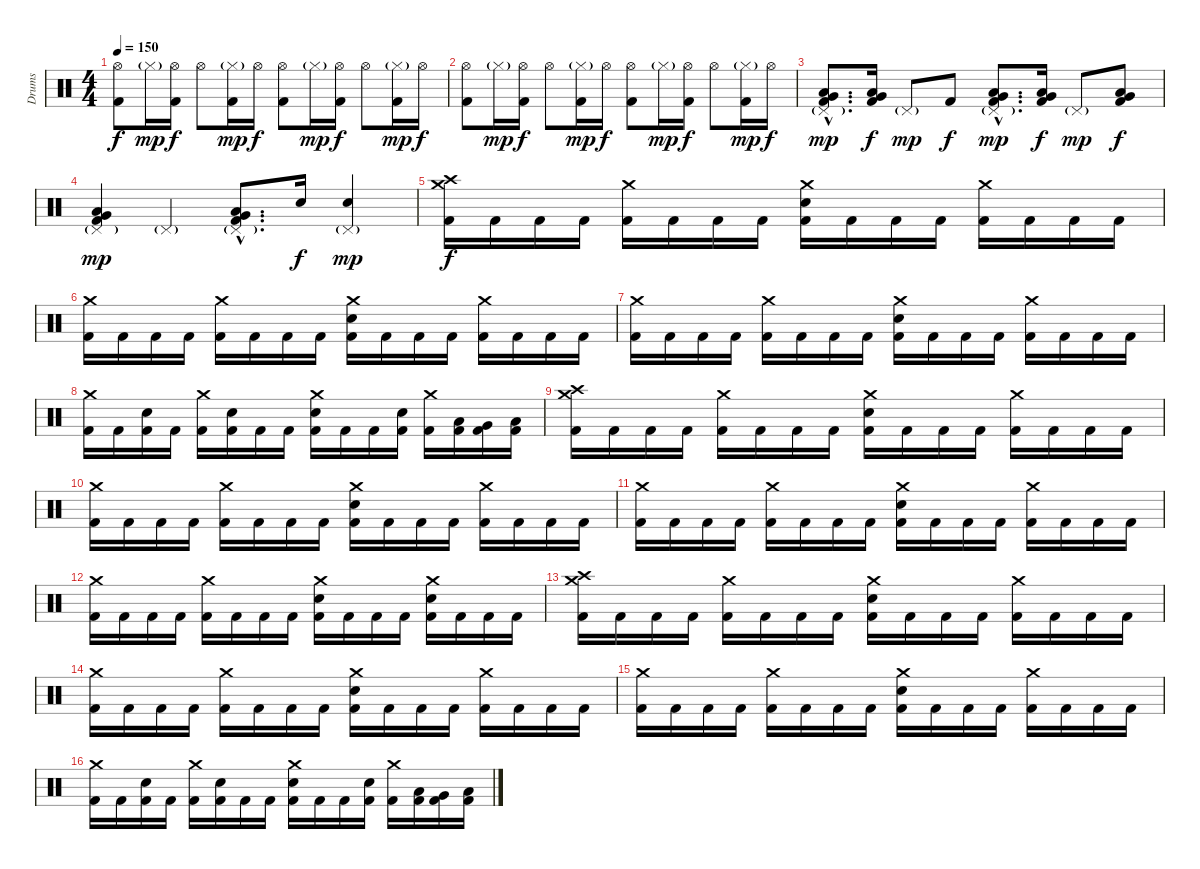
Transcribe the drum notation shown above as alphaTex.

\track ("Drums" "Drums") {instrument percussion}
\staff {score}
\articulation defaults
\ts (4 4)
\tempo 150
\clef neutral
\ks c
("Hi-Hat (open)" "Kick (hit) 2").8{dy f} "Hi-Hat (closed)"{g}.16{dy mp} ("Hi-Hat (open)" "Kick (hit) 2").16{dy f} "Hi-Hat (open)".8 ("Hi-Hat (closed)"{g} "Kick (hit) 2").16{dy mp} "Hi-Hat (open)".16{dy f} ("Hi-Hat (open)" "Kick (hit) 2").8 "Hi-Hat (closed)"{g}.16{dy mp} ("Hi-Hat (open)" "Kick (hit) 2").16{dy f} "Hi-Hat (open)".8 ("Hi-Hat (closed)"{g} "Kick (hit) 2").16{dy mp} "Hi-Hat (open)".16{dy f} |
("Hi-Hat (open)" "Kick (hit) 2").8 "Hi-Hat (closed)"{g}.16{dy mp} ("Hi-Hat (open)" "Kick (hit) 2").16{dy f} "Hi-Hat (open)".8 ("Hi-Hat (closed)"{g} "Kick (hit) 2").16{dy mp} "Hi-Hat (open)".16{dy f} ("Hi-Hat (open)" "Kick (hit) 2").8 "Hi-Hat (closed)"{g}.16{dy mp} ("Hi-Hat (open)" "Kick (hit) 2").16{dy f} "Hi-Hat (open)".8 ("Hi-Hat (closed)"{g} "Kick (hit) 2").16{dy mp} "Hi-Hat (open)".16{dy f} |
("Pedal Hi-Hat (hit)"{g hac} "Very Low Tom (hit)"{hac} "Low Tom (hit)"{hac} "Kick (hit) 2"{hac}).8{d dy mp} ("Very Low Tom (hit)" "Low Tom (hit)" "Kick (hit) 2").16{dy f} "Pedal Hi-Hat (hit)"{g}.8{dy mp} "Kick (hit) 2".8{dy f} ("Pedal Hi-Hat (hit)"{g hac} "Very Low Tom (hit)"{hac} "Low Tom (hit)"{hac} "Kick (hit) 2"{hac}).8{d dy mp} ("Very Low Tom (hit)" "Low Tom (hit)" "Kick (hit) 2").16{dy f} "Pedal Hi-Hat (hit)"{g}.8{dy mp} ("Very Low Tom (hit)" "Low Tom (hit)" "Kick (hit) 2").8{dy f} |
("Pedal Hi-Hat (hit)"{g} "Very Low Tom (hit)" "Low Tom (hit)" "Kick (hit) 2").4{dy mp} "Pedal Hi-Hat (hit)"{g}.4 ("Pedal Hi-Hat (hit)"{g hac} "Very Low Tom (hit)"{hac} "Low Tom (hit)"{hac} "Kick (hit) 2"{hac}).8{d} "Snare (hit) 2".16{dy f} ("Pedal Hi-Hat (hit)"{g} "Snare (hit) 2").4{dy mp} |
("Crash medium (hit)" "Crash high (hit)" "Kick (hit) 2").16{dy f} "Kick (hit) 2".16 "Kick (hit) 2".16 "Kick (hit) 2".16 ("Crash medium (hit)" "Kick (hit) 2").16 "Kick (hit) 2".16 "Kick (hit) 2".16 "Kick (hit) 2".16 ("Crash medium (hit)" "Snare (hit) 2" "Kick (hit) 2").16 "Kick (hit) 2".16 "Kick (hit) 2".16 "Kick (hit) 2".16 ("Crash medium (hit)" "Kick (hit) 2").16 "Kick (hit) 2".16 "Kick (hit) 2".16 "Kick (hit) 2".16 |
("Crash medium (hit)" "Kick (hit) 2").16 "Kick (hit) 2".16 "Kick (hit) 2".16 "Kick (hit) 2".16 ("Crash medium (hit)" "Kick (hit) 2").16 "Kick (hit) 2".16 "Kick (hit) 2".16 "Kick (hit) 2".16 ("Crash medium (hit)" "Snare (hit) 2" "Kick (hit) 2").16 "Kick (hit) 2".16 "Kick (hit) 2".16 "Kick (hit) 2".16 ("Crash medium (hit)" "Kick (hit) 2").16 "Kick (hit) 2".16 "Kick (hit) 2".16 "Kick (hit) 2".16 |
("Crash medium (hit)" "Kick (hit) 2").16 "Kick (hit) 2".16 "Kick (hit) 2".16 "Kick (hit) 2".16 ("Crash medium (hit)" "Kick (hit) 2").16 "Kick (hit) 2".16 "Kick (hit) 2".16 "Kick (hit) 2".16 ("Crash medium (hit)" "Snare (hit) 2" "Kick (hit) 2").16 "Kick (hit) 2".16 "Kick (hit) 2".16 "Kick (hit) 2".16 ("Crash medium (hit)" "Kick (hit) 2").16 "Kick (hit) 2".16 "Kick (hit) 2".16 "Kick (hit) 2".16 |
("Crash medium (hit)" "Kick (hit) 2").16 "Kick (hit) 2".16 ("Snare (hit) 2" "Kick (hit) 2").16 "Kick (hit) 2".16 ("Crash medium (hit)" "Kick (hit) 2").16 ("Snare (hit) 2" "Kick (hit) 2").16 "Kick (hit) 2".16 "Kick (hit) 2".16 ("Crash medium (hit)" "Snare (hit) 2" "Kick (hit) 2").16 "Kick (hit) 2".16 "Kick (hit) 2".16 ("Snare (hit) 2" "Kick (hit) 2").16 ("Crash medium (hit)" "Kick (hit) 2").16 ("Low Tom (hit)" "Kick (hit) 2").16 ("Very Low Tom (hit)" "Kick (hit) 2").16 ("Low Floor Tom (hit)" "Kick (hit) 2").16 |
("Crash medium (hit)" "Crash high (hit)" "Kick (hit) 2").16 "Kick (hit) 2".16 "Kick (hit) 2".16 "Kick (hit) 2".16 ("Crash medium (hit)" "Kick (hit) 2").16 "Kick (hit) 2".16 "Kick (hit) 2".16 "Kick (hit) 2".16 ("Crash medium (hit)" "Snare (hit) 2" "Kick (hit) 2").16 "Kick (hit) 2".16 "Kick (hit) 2".16 "Kick (hit) 2".16 ("Crash medium (hit)" "Kick (hit) 2").16 "Kick (hit) 2".16 "Kick (hit) 2".16 "Kick (hit) 2".16 |
("Crash medium (hit)" "Kick (hit) 2").16 "Kick (hit) 2".16 "Kick (hit) 2".16 "Kick (hit) 2".16 ("Crash medium (hit)" "Kick (hit) 2").16 "Kick (hit) 2".16 "Kick (hit) 2".16 "Kick (hit) 2".16 ("Crash medium (hit)" "Snare (hit) 2" "Kick (hit) 2").16 "Kick (hit) 2".16 "Kick (hit) 2".16 "Kick (hit) 2".16 ("Crash medium (hit)" "Kick (hit) 2").16 "Kick (hit) 2".16 "Kick (hit) 2".16 "Kick (hit) 2".16 |
("Crash medium (hit)" "Kick (hit) 2").16 "Kick (hit) 2".16 "Kick (hit) 2".16 "Kick (hit) 2".16 ("Crash medium (hit)" "Kick (hit) 2").16 "Kick (hit) 2".16 "Kick (hit) 2".16 "Kick (hit) 2".16 ("Crash medium (hit)" "Snare (hit) 2" "Kick (hit) 2").16 "Kick (hit) 2".16 "Kick (hit) 2".16 "Kick (hit) 2".16 ("Crash medium (hit)" "Kick (hit) 2").16 "Kick (hit) 2".16 "Kick (hit) 2".16 "Kick (hit) 2".16 |
("Crash medium (hit)" "Kick (hit) 2").16 "Kick (hit) 2".16 "Kick (hit) 2".16 "Kick (hit) 2".16 ("Crash medium (hit)" "Kick (hit) 2").16 "Kick (hit) 2".16 "Kick (hit) 2".16 "Kick (hit) 2".16 ("Crash medium (hit)" "Snare (hit) 2" "Kick (hit) 2").16 "Kick (hit) 2".16 "Kick (hit) 2".16 "Kick (hit) 2".16 ("Crash medium (hit)" "Snare (hit) 2" "Kick (hit) 2").16 "Kick (hit) 2".16 "Kick (hit) 2".16 "Kick (hit) 2".16 |
("Crash medium (hit)" "Crash high (hit)" "Kick (hit) 2").16 "Kick (hit) 2".16 "Kick (hit) 2".16 "Kick (hit) 2".16 ("Crash medium (hit)" "Kick (hit) 2").16 "Kick (hit) 2".16 "Kick (hit) 2".16 "Kick (hit) 2".16 ("Crash medium (hit)" "Snare (hit) 2" "Kick (hit) 2").16 "Kick (hit) 2".16 "Kick (hit) 2".16 "Kick (hit) 2".16 ("Crash medium (hit)" "Kick (hit) 2").16 "Kick (hit) 2".16 "Kick (hit) 2".16 "Kick (hit) 2".16 |
("Crash medium (hit)" "Kick (hit) 2").16 "Kick (hit) 2".16 "Kick (hit) 2".16 "Kick (hit) 2".16 ("Crash medium (hit)" "Kick (hit) 2").16 "Kick (hit) 2".16 "Kick (hit) 2".16 "Kick (hit) 2".16 ("Crash medium (hit)" "Snare (hit) 2" "Kick (hit) 2").16 "Kick (hit) 2".16 "Kick (hit) 2".16 "Kick (hit) 2".16 ("Crash medium (hit)" "Kick (hit) 2").16 "Kick (hit) 2".16 "Kick (hit) 2".16 "Kick (hit) 2".16 |
("Crash medium (hit)" "Kick (hit) 2").16 "Kick (hit) 2".16 "Kick (hit) 2".16 "Kick (hit) 2".16 ("Crash medium (hit)" "Kick (hit) 2").16 "Kick (hit) 2".16 "Kick (hit) 2".16 "Kick (hit) 2".16 ("Crash medium (hit)" "Snare (hit) 2" "Kick (hit) 2").16 "Kick (hit) 2".16 "Kick (hit) 2".16 "Kick (hit) 2".16 ("Crash medium (hit)" "Kick (hit) 2").16 "Kick (hit) 2".16 "Kick (hit) 2".16 "Kick (hit) 2".16 |
("Crash medium (hit)" "Kick (hit) 2").16 "Kick (hit) 2".16 ("Snare (hit) 2" "Kick (hit) 2").16 "Kick (hit) 2".16 ("Crash medium (hit)" "Kick (hit) 2").16 ("Snare (hit) 2" "Kick (hit) 2").16 "Kick (hit) 2".16 "Kick (hit) 2".16 ("Crash medium (hit)" "Snare (hit) 2" "Kick (hit) 2").16 "Kick (hit) 2".16 "Kick (hit) 2".16 ("Snare (hit) 2" "Kick (hit) 2").16 ("Crash medium (hit)" "Kick (hit) 2").16 ("Low Tom (hit)" "Kick (hit) 2").16 ("Very Low Tom (hit)" "Kick (hit) 2").16 ("Low Floor Tom (hit)" "Kick (hit) 2").16
